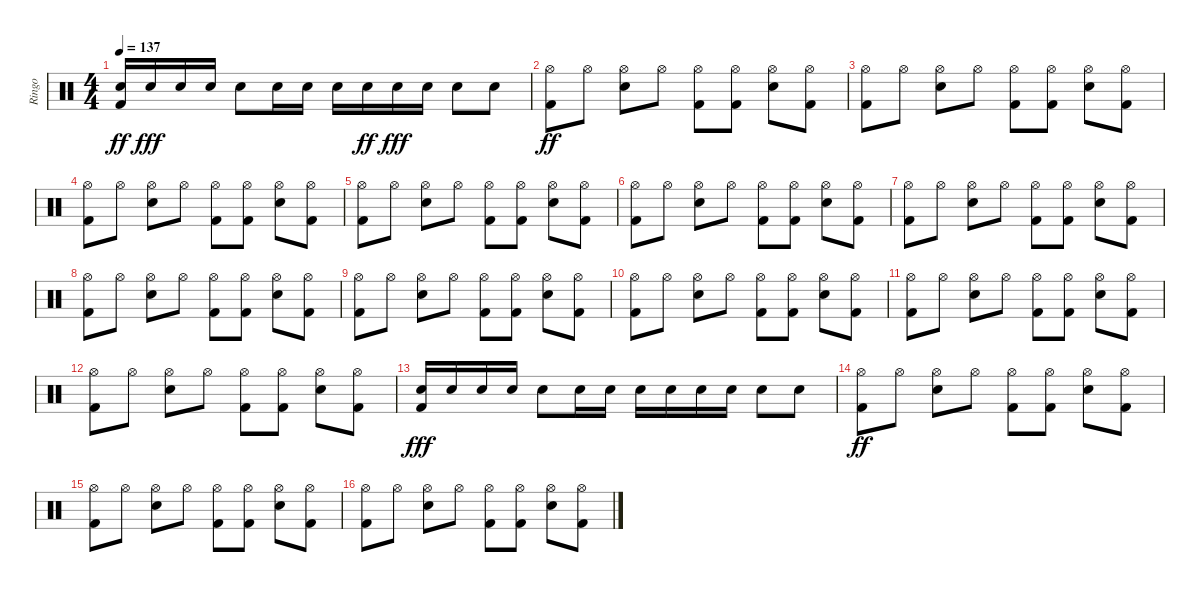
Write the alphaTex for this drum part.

\track ("Ringo" "Ringo") {instrument percussion}
\staff {score}
\articulation defaults
\ts (4 4)
\tempo 137
\clef neutral
\ks c
("Kick (hit) 2" "Snare (hit) 2").16{dy ff} "Snare (hit) 2".16{dy fff} "Snare (hit) 2".16 "Snare (hit) 2".16 "Snare (hit) 2".8 "Snare (hit) 2".16 "Snare (hit) 2".16 "Snare (hit) 2".16 "Snare (hit) 2".16{dy ff} "Snare (hit) 2".16{dy fff} "Snare (hit) 2".16 "Snare (hit) 2".8 "Snare (hit) 2".8 |
("Kick (hit) 2" "Hi-Hat (open)").8{dy ff} "Hi-Hat (open)".8 ("Snare (hit) 2" "Hi-Hat (open)").8 "Hi-Hat (open)".8 ("Kick (hit) 2" "Hi-Hat (open)").8 ("Kick (hit) 2" "Hi-Hat (open)").8 ("Snare (hit) 2" "Hi-Hat (open)").8 ("Kick (hit) 2" "Hi-Hat (open)").8 |
("Kick (hit) 2" "Hi-Hat (open)").8 "Hi-Hat (open)".8 ("Snare (hit) 2" "Hi-Hat (open)").8 "Hi-Hat (open)".8 ("Kick (hit) 2" "Hi-Hat (open)").8 ("Kick (hit) 2" "Hi-Hat (open)").8 ("Snare (hit) 2" "Hi-Hat (open)").8 ("Kick (hit) 2" "Hi-Hat (open)").8 |
("Kick (hit) 2" "Hi-Hat (open)").8 "Hi-Hat (open)".8 ("Snare (hit) 2" "Hi-Hat (open)").8 "Hi-Hat (open)".8 ("Kick (hit) 2" "Hi-Hat (open)").8 ("Kick (hit) 2" "Hi-Hat (open)").8 ("Snare (hit) 2" "Hi-Hat (open)").8 ("Kick (hit) 2" "Hi-Hat (open)").8 |
("Kick (hit) 2" "Hi-Hat (open)").8 "Hi-Hat (open)".8 ("Snare (hit) 2" "Hi-Hat (open)").8 "Hi-Hat (open)".8 ("Kick (hit) 2" "Hi-Hat (open)").8 ("Kick (hit) 2" "Hi-Hat (open)").8 ("Snare (hit) 2" "Hi-Hat (open)").8 ("Kick (hit) 2" "Hi-Hat (open)").8 |
("Kick (hit) 2" "Hi-Hat (open)").8 "Hi-Hat (open)".8 ("Snare (hit) 2" "Hi-Hat (open)").8 "Hi-Hat (open)".8 ("Kick (hit) 2" "Hi-Hat (open)").8 ("Kick (hit) 2" "Hi-Hat (open)").8 ("Snare (hit) 2" "Hi-Hat (open)").8 ("Kick (hit) 2" "Hi-Hat (open)").8 |
("Kick (hit) 2" "Hi-Hat (open)").8 "Hi-Hat (open)".8 ("Snare (hit) 2" "Hi-Hat (open)").8 "Hi-Hat (open)".8 ("Kick (hit) 2" "Hi-Hat (open)").8 ("Kick (hit) 2" "Hi-Hat (open)").8 ("Snare (hit) 2" "Hi-Hat (open)").8 ("Kick (hit) 2" "Hi-Hat (open)").8 |
("Kick (hit) 2" "Hi-Hat (open)").8 "Hi-Hat (open)".8 ("Snare (hit) 2" "Hi-Hat (open)").8 "Hi-Hat (open)".8 ("Kick (hit) 2" "Hi-Hat (open)").8 ("Kick (hit) 2" "Hi-Hat (open)").8 ("Snare (hit) 2" "Hi-Hat (open)").8 ("Kick (hit) 2" "Hi-Hat (open)").8 |
("Kick (hit) 2" "Hi-Hat (open)").8 "Hi-Hat (open)".8 ("Snare (hit) 2" "Hi-Hat (open)").8 "Hi-Hat (open)".8 ("Kick (hit) 2" "Hi-Hat (open)").8 ("Kick (hit) 2" "Hi-Hat (open)").8 ("Snare (hit) 2" "Hi-Hat (open)").8 ("Kick (hit) 2" "Hi-Hat (open)").8 |
("Kick (hit) 2" "Hi-Hat (open)").8 "Hi-Hat (open)".8 ("Snare (hit) 2" "Hi-Hat (open)").8 "Hi-Hat (open)".8 ("Kick (hit) 2" "Hi-Hat (open)").8 ("Kick (hit) 2" "Hi-Hat (open)").8 ("Snare (hit) 2" "Hi-Hat (open)").8 ("Kick (hit) 2" "Hi-Hat (open)").8 |
("Kick (hit) 2" "Hi-Hat (open)").8 "Hi-Hat (open)".8 ("Snare (hit) 2" "Hi-Hat (open)").8 "Hi-Hat (open)".8 ("Kick (hit) 2" "Hi-Hat (open)").8 ("Kick (hit) 2" "Hi-Hat (open)").8 ("Snare (hit) 2" "Hi-Hat (open)").8 ("Kick (hit) 2" "Hi-Hat (open)").8 |
("Kick (hit) 2" "Hi-Hat (open)").8 "Hi-Hat (open)".8 ("Snare (hit) 2" "Hi-Hat (open)").8 "Hi-Hat (open)".8 ("Kick (hit) 2" "Hi-Hat (open)").8 ("Kick (hit) 2" "Hi-Hat (open)").8 ("Snare (hit) 2" "Hi-Hat (open)").8 ("Kick (hit) 2" "Hi-Hat (open)").8 |
("Kick (hit) 2" "Snare (hit) 2").16{dy fff} "Snare (hit) 2".16 "Snare (hit) 2".16 "Snare (hit) 2".16 "Snare (hit) 2".8 "Snare (hit) 2".16 "Snare (hit) 2".16 "Snare (hit) 2".16 "Snare (hit) 2".16 "Snare (hit) 2".16 "Snare (hit) 2".16 "Snare (hit) 2".8 "Snare (hit) 2".8 |
("Kick (hit) 2" "Hi-Hat (open)").8{dy ff} "Hi-Hat (open)".8 ("Snare (hit) 2" "Hi-Hat (open)").8 "Hi-Hat (open)".8 ("Kick (hit) 2" "Hi-Hat (open)").8 ("Kick (hit) 2" "Hi-Hat (open)").8 ("Snare (hit) 2" "Hi-Hat (open)").8 ("Kick (hit) 2" "Hi-Hat (open)").8 |
("Kick (hit) 2" "Hi-Hat (open)").8 "Hi-Hat (open)".8 ("Snare (hit) 2" "Hi-Hat (open)").8 "Hi-Hat (open)".8 ("Kick (hit) 2" "Hi-Hat (open)").8 ("Kick (hit) 2" "Hi-Hat (open)").8 ("Snare (hit) 2" "Hi-Hat (open)").8 ("Kick (hit) 2" "Hi-Hat (open)").8 |
("Kick (hit) 2" "Hi-Hat (open)").8 "Hi-Hat (open)".8 ("Snare (hit) 2" "Hi-Hat (open)").8 "Hi-Hat (open)".8 ("Kick (hit) 2" "Hi-Hat (open)").8 ("Kick (hit) 2" "Hi-Hat (open)").8 ("Snare (hit) 2" "Hi-Hat (open)").8 ("Kick (hit) 2" "Hi-Hat (open)").8
